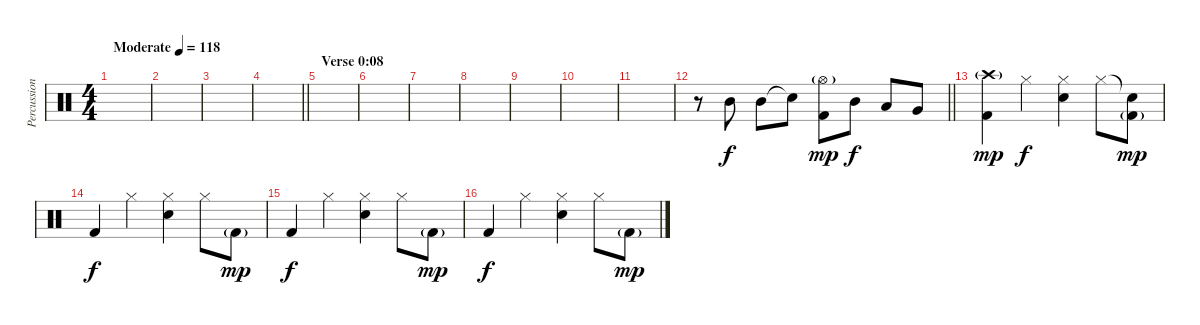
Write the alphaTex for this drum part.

\track ("Percussion" "Percussion") {instrument percussion}
\staff {score}
\articulation defaults
\ts (4 4)
\tempo (118 "Moderate")
\clef neutral
\ks c
|
|
|
\barLineRight lightlight
|
\section ("" "Verse 0:08")
|
|
|
|
|
|
|
\barLineRight lightlight
r.8 "Mid Tom (hit)".8 "Mid Tom (hit)".8 "Snare (hit)"{t}.8 ("Hi-Hat (open)"{g} "Kick (hit) 2").8{dy mp} "Mid Tom (hit)".8{dy f} "Low Tom (hit)".8 "Very Low Tom (hit)".8 |
("Crash high (hit)"{g} "Kick (hit) 2").4{dy mp} "Hi-Hat (closed)".4{dy f} ("Hi-Hat (closed)" "Electric Snare (hit)").4 "Hi-Hat (closed)".8 ("Snare (hit)"{t} "Kick (hit) 2"{g}).8{dy mp} |
"Kick (hit) 2".4{dy f} "Hi-Hat (closed)".4 ("Hi-Hat (closed)" "Electric Snare (hit)").4 "Hi-Hat (closed)".8 "Kick (hit) 2"{g}.8{dy mp} |
"Kick (hit) 2".4{dy f} "Hi-Hat (closed)".4 ("Hi-Hat (closed)" "Electric Snare (hit)").4 "Hi-Hat (closed)".8 "Kick (hit) 2"{g}.8{dy mp} |
"Kick (hit) 2".4{dy f} "Hi-Hat (closed)".4 ("Hi-Hat (closed)" "Electric Snare (hit)").4 "Hi-Hat (closed)".8 "Kick (hit) 2"{g}.8{dy mp}
